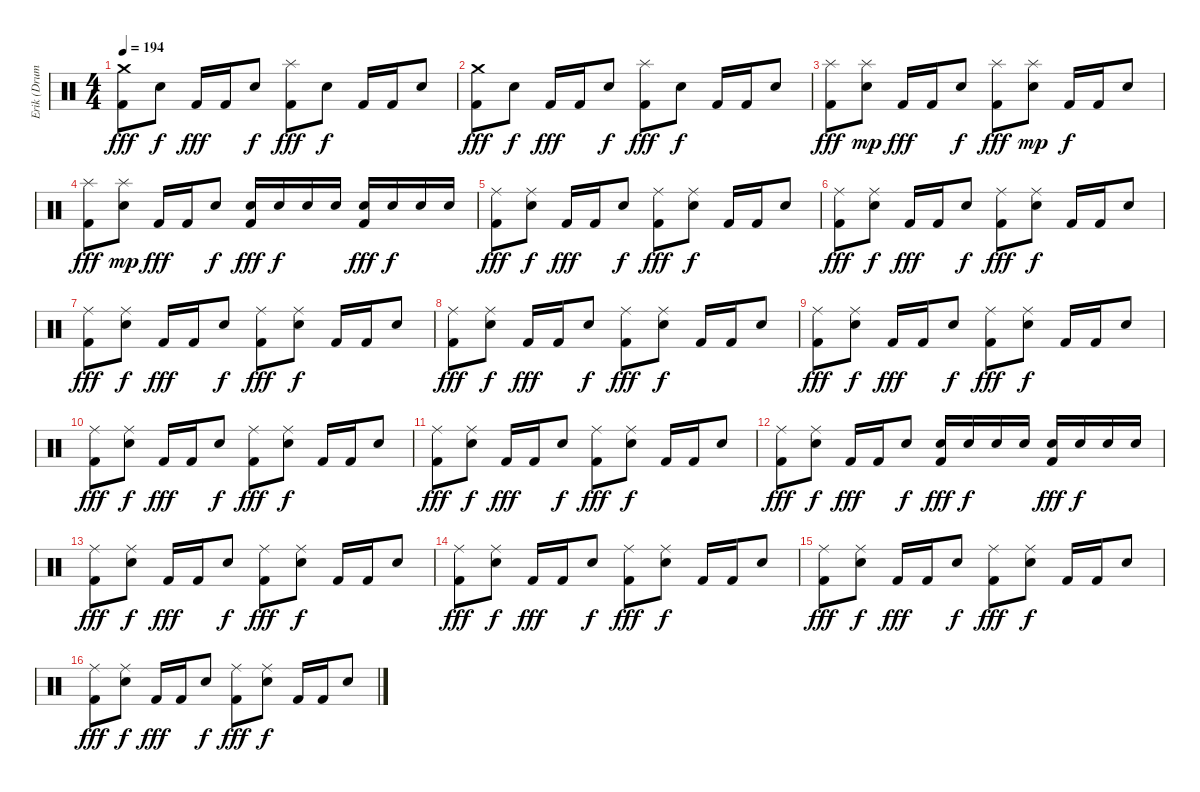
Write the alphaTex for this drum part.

\track ("Erik (Drums)" "Erik (Drum") {instrument percussion}
\staff {score}
\articulation defaults
\ts (4 4)
\tempo 194
\clef neutral
\ks c
("Crash medium (hit)" "Kick (hit) 2").8{dy fff} "Electric Snare (hit)".8{dy f} "Kick (hit) 2".16{dy fff} "Kick (hit) 2".16 "Electric Snare (hit)".8{dy f} ("Splash (hit)" "Kick (hit) 2").8{dy fff} "Electric Snare (hit)".8{dy f} "Kick (hit) 2".16 "Kick (hit) 2".16 "Electric Snare (hit)".8 |
("Crash medium (hit)" "Kick (hit) 2").8{dy fff} "Electric Snare (hit)".8{dy f} "Kick (hit) 2".16{dy fff} "Kick (hit) 2".16 "Electric Snare (hit)".8{dy f} ("Splash (hit)" "Kick (hit) 2").8{dy fff} "Electric Snare (hit)".8{dy f} "Kick (hit) 2".16 "Kick (hit) 2".16 "Electric Snare (hit)".8 |
("Splash (hit)" "Kick (hit) 2").8{dy fff} ("Splash (hit)" "Electric Snare (hit)").8{dy mp} "Kick (hit) 2".16{dy fff} "Kick (hit) 2".16 "Electric Snare (hit)".8{dy f} ("Splash (hit)" "Kick (hit) 2").8{dy fff} ("Splash (hit)" "Electric Snare (hit)").8{dy mp} "Kick (hit) 2".16{dy f} "Kick (hit) 2".16 "Electric Snare (hit)".8 |
("Splash (hit)" "Kick (hit) 2").8{dy fff} ("Splash (hit)" "Electric Snare (hit)").8{dy mp} "Kick (hit) 2".16{dy fff} "Kick (hit) 2".16 "Electric Snare (hit)".8{dy f} ("Electric Snare (hit)" "Kick (hit) 2").16{dy fff} "Electric Snare (hit)".16{dy f} "Electric Snare (hit)".16 "Electric Snare (hit)".16 ("Electric Snare (hit)" "Kick (hit) 2").16{dy fff} "Electric Snare (hit)".16{dy f} "Electric Snare (hit)".16 "Electric Snare (hit)".16 |
("Ride (middle)" "Kick (hit) 2").8{dy fff} ("Ride (middle)" "Electric Snare (hit)").8{dy f} "Kick (hit) 2".16{dy fff} "Kick (hit) 2".16 "Electric Snare (hit)".8{dy f} ("Ride (middle)" "Kick (hit) 2").8{dy fff} ("Ride (middle)" "Electric Snare (hit)").8{dy f} "Kick (hit) 2".16 "Kick (hit) 2".16 "Electric Snare (hit)".8 |
("Ride (middle)" "Kick (hit) 2").8{dy fff} ("Ride (middle)" "Electric Snare (hit)").8{dy f} "Kick (hit) 2".16{dy fff} "Kick (hit) 2".16 "Electric Snare (hit)".8{dy f} ("Ride (middle)" "Kick (hit) 2").8{dy fff} ("Ride (middle)" "Electric Snare (hit)").8{dy f} "Kick (hit) 2".16 "Kick (hit) 2".16 "Electric Snare (hit)".8 |
("Ride (middle)" "Kick (hit) 2").8{dy fff} ("Ride (middle)" "Electric Snare (hit)").8{dy f} "Kick (hit) 2".16{dy fff} "Kick (hit) 2".16 "Electric Snare (hit)".8{dy f} ("Ride (middle)" "Kick (hit) 2").8{dy fff} ("Ride (middle)" "Electric Snare (hit)").8{dy f} "Kick (hit) 2".16 "Kick (hit) 2".16 "Electric Snare (hit)".8 |
("Ride (middle)" "Kick (hit) 2").8{dy fff} ("Ride (middle)" "Electric Snare (hit)").8{dy f} "Kick (hit) 2".16{dy fff} "Kick (hit) 2".16 "Electric Snare (hit)".8{dy f} ("Ride (middle)" "Kick (hit) 2").8{dy fff} ("Ride (middle)" "Electric Snare (hit)").8{dy f} "Kick (hit) 2".16 "Kick (hit) 2".16 "Electric Snare (hit)".8 |
("Ride (middle)" "Kick (hit) 2").8{dy fff} ("Ride (middle)" "Electric Snare (hit)").8{dy f} "Kick (hit) 2".16{dy fff} "Kick (hit) 2".16 "Electric Snare (hit)".8{dy f} ("Ride (middle)" "Kick (hit) 2").8{dy fff} ("Ride (middle)" "Electric Snare (hit)").8{dy f} "Kick (hit) 2".16 "Kick (hit) 2".16 "Electric Snare (hit)".8 |
("Ride (middle)" "Kick (hit) 2").8{dy fff} ("Ride (middle)" "Electric Snare (hit)").8{dy f} "Kick (hit) 2".16{dy fff} "Kick (hit) 2".16 "Electric Snare (hit)".8{dy f} ("Ride (middle)" "Kick (hit) 2").8{dy fff} ("Ride (middle)" "Electric Snare (hit)").8{dy f} "Kick (hit) 2".16 "Kick (hit) 2".16 "Electric Snare (hit)".8 |
("Ride (middle)" "Kick (hit) 2").8{dy fff} ("Ride (middle)" "Electric Snare (hit)").8{dy f} "Kick (hit) 2".16{dy fff} "Kick (hit) 2".16 "Electric Snare (hit)".8{dy f} ("Ride (middle)" "Kick (hit) 2").8{dy fff} ("Ride (middle)" "Electric Snare (hit)").8{dy f} "Kick (hit) 2".16 "Kick (hit) 2".16 "Electric Snare (hit)".8 |
("Ride (middle)" "Kick (hit) 2").8{dy fff} ("Ride (middle)" "Electric Snare (hit)").8{dy f} "Kick (hit) 2".16{dy fff} "Kick (hit) 2".16 "Electric Snare (hit)".8{dy f} ("Electric Snare (hit)" "Kick (hit) 2").16{dy fff} "Electric Snare (hit)".16{dy f} "Electric Snare (hit)".16 "Electric Snare (hit)".16 ("Electric Snare (hit)" "Kick (hit) 2").16{dy fff} "Electric Snare (hit)".16{dy f} "Electric Snare (hit)".16 "Electric Snare (hit)".16 |
("Ride (middle)" "Kick (hit) 2").8{dy fff} ("Ride (middle)" "Electric Snare (hit)").8{dy f} "Kick (hit) 2".16{dy fff} "Kick (hit) 2".16 "Electric Snare (hit)".8{dy f} ("Ride (middle)" "Kick (hit) 2").8{dy fff} ("Ride (middle)" "Electric Snare (hit)").8{dy f} "Kick (hit) 2".16 "Kick (hit) 2".16 "Electric Snare (hit)".8 |
("Ride (middle)" "Kick (hit) 2").8{dy fff} ("Ride (middle)" "Electric Snare (hit)").8{dy f} "Kick (hit) 2".16{dy fff} "Kick (hit) 2".16 "Electric Snare (hit)".8{dy f} ("Ride (middle)" "Kick (hit) 2").8{dy fff} ("Ride (middle)" "Electric Snare (hit)").8{dy f} "Kick (hit) 2".16 "Kick (hit) 2".16 "Electric Snare (hit)".8 |
("Ride (middle)" "Kick (hit) 2").8{dy fff} ("Ride (middle)" "Electric Snare (hit)").8{dy f} "Kick (hit) 2".16{dy fff} "Kick (hit) 2".16 "Electric Snare (hit)".8{dy f} ("Ride (middle)" "Kick (hit) 2").8{dy fff} ("Ride (middle)" "Electric Snare (hit)").8{dy f} "Kick (hit) 2".16 "Kick (hit) 2".16 "Electric Snare (hit)".8 |
("Ride (middle)" "Kick (hit) 2").8{dy fff} ("Ride (middle)" "Electric Snare (hit)").8{dy f} "Kick (hit) 2".16{dy fff} "Kick (hit) 2".16 "Electric Snare (hit)".8{dy f} ("Ride (middle)" "Kick (hit) 2").8{dy fff} ("Ride (middle)" "Electric Snare (hit)").8{dy f} "Kick (hit) 2".16 "Kick (hit) 2".16 "Electric Snare (hit)".8
